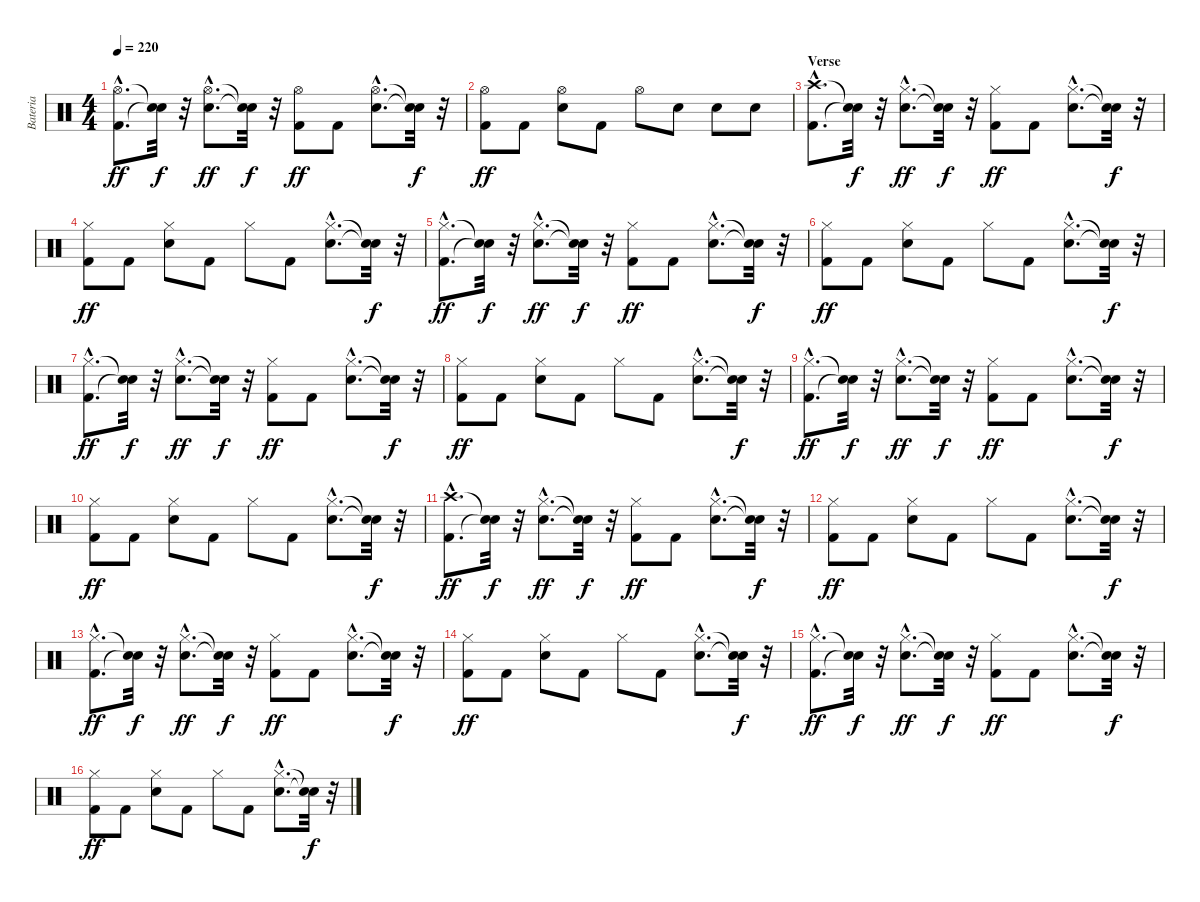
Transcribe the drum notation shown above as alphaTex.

\track ("Bateria" "Bateria") {instrument percussion}
\staff {score}
\articulation defaults
\ts (4 4)
\tempo 220
\clef neutral
\ks c
("Kick (hit) 2"{hac} "Hi-Hat (open)"{hac}).8{d dy ff} ("Snare (hit)"{t} "Snare (hit)"{t}).32{dy f} r.32 ("Electric Snare (hit)"{hac} "Hi-Hat (open)"{hac}).8{d dy ff} ("Snare (hit)"{t} "Snare (hit)"{t}).32{dy f} r.32 ("Kick (hit) 2" "Hi-Hat (open)").8{dy ff} "Kick (hit) 2".8 ("Electric Snare (hit)"{hac} "Hi-Hat (open)"{hac}).8{d} ("Snare (hit)"{t} "Snare (hit)"{t}).32{dy f} r.32 |
("Kick (hit) 2" "Hi-Hat (open)").8{dy ff} "Kick (hit) 2".8 ("Electric Snare (hit)" "Hi-Hat (open)").8 "Kick (hit) 2".8 "Hi-Hat (open)".8 "Electric Snare (hit)".8 "Electric Snare (hit)".8 "Electric Snare (hit)".8 |
\section ("" "Verse")
("Kick (hit) 2"{hac} "Crash high (hit)"{hac}).8{d} ("Snare (hit)"{t} "Snare (hit)"{t}).32{dy f} r.32 ("Electric Snare (hit)"{hac} "Hi-Hat (closed)"{hac}).8{d dy ff} ("Snare (hit)"{t} "Snare (hit)"{t}).32{dy f} r.32 ("Kick (hit) 2" "Hi-Hat (closed)").8{dy ff} "Kick (hit) 2".8 ("Electric Snare (hit)"{hac} "Hi-Hat (closed)"{hac}).8{d} ("Snare (hit)"{t} "Snare (hit)"{t}).32{dy f} r.32 |
("Kick (hit) 2" "Hi-Hat (closed)").8{dy ff} "Kick (hit) 2".8 ("Electric Snare (hit)" "Hi-Hat (closed)").8 "Kick (hit) 2".8 "Hi-Hat (closed)".8 "Kick (hit) 2".8 ("Electric Snare (hit)"{hac} "Hi-Hat (closed)"{hac}).8{d} ("Snare (hit)"{t} "Snare (hit)"{t}).32{dy f} r.32 |
("Kick (hit) 2"{hac} "Hi-Hat (closed)"{hac}).8{d dy ff} ("Snare (hit)"{t} "Snare (hit)"{t}).32{dy f} r.32 ("Electric Snare (hit)"{hac} "Hi-Hat (closed)"{hac}).8{d dy ff} ("Snare (hit)"{t} "Snare (hit)"{t}).32{dy f} r.32 ("Kick (hit) 2" "Hi-Hat (closed)").8{dy ff} "Kick (hit) 2".8 ("Electric Snare (hit)"{hac} "Hi-Hat (closed)"{hac}).8{d} ("Snare (hit)"{t} "Snare (hit)"{t}).32{dy f} r.32 |
("Kick (hit) 2" "Hi-Hat (closed)").8{dy ff} "Kick (hit) 2".8 ("Electric Snare (hit)" "Hi-Hat (closed)").8 "Kick (hit) 2".8 "Hi-Hat (closed)".8 "Kick (hit) 2".8 ("Electric Snare (hit)"{hac} "Hi-Hat (closed)"{hac}).8{d} ("Snare (hit)"{t} "Snare (hit)"{t}).32{dy f} r.32 |
("Kick (hit) 2"{hac} "Hi-Hat (closed)"{hac}).8{d dy ff} ("Snare (hit)"{t} "Snare (hit)"{t}).32{dy f} r.32 ("Electric Snare (hit)"{hac} "Hi-Hat (closed)"{hac}).8{d dy ff} ("Snare (hit)"{t} "Snare (hit)"{t}).32{dy f} r.32 ("Kick (hit) 2" "Hi-Hat (closed)").8{dy ff} "Kick (hit) 2".8 ("Electric Snare (hit)"{hac} "Hi-Hat (closed)"{hac}).8{d} ("Snare (hit)"{t} "Snare (hit)"{t}).32{dy f} r.32 |
("Kick (hit) 2" "Hi-Hat (closed)").8{dy ff} "Kick (hit) 2".8 ("Electric Snare (hit)" "Hi-Hat (closed)").8 "Kick (hit) 2".8 "Hi-Hat (closed)".8 "Kick (hit) 2".8 ("Electric Snare (hit)"{hac} "Hi-Hat (closed)"{hac}).8{d} ("Snare (hit)"{t} "Snare (hit)"{t}).32{dy f} r.32 |
("Kick (hit) 2"{hac} "Hi-Hat (closed)"{hac}).8{d dy ff} ("Snare (hit)"{t} "Snare (hit)"{t}).32{dy f} r.32 ("Electric Snare (hit)"{hac} "Hi-Hat (closed)"{hac}).8{d dy ff} ("Snare (hit)"{t} "Snare (hit)"{t}).32{dy f} r.32 ("Kick (hit) 2" "Hi-Hat (closed)").8{dy ff} "Kick (hit) 2".8 ("Electric Snare (hit)"{hac} "Hi-Hat (closed)"{hac}).8{d} ("Snare (hit)"{t} "Snare (hit)"{t}).32{dy f} r.32 |
("Kick (hit) 2" "Hi-Hat (closed)").8{dy ff} "Kick (hit) 2".8 ("Electric Snare (hit)" "Hi-Hat (closed)").8 "Kick (hit) 2".8 "Hi-Hat (closed)".8 "Kick (hit) 2".8 ("Electric Snare (hit)"{hac} "Hi-Hat (closed)"{hac}).8{d} ("Snare (hit)"{t} "Snare (hit)"{t}).32{dy f} r.32 |
("Kick (hit) 2"{hac} "Crash high (hit)"{hac}).8{d dy ff} ("Snare (hit)"{t} "Snare (hit)"{t}).32{dy f} r.32 ("Electric Snare (hit)"{hac} "Hi-Hat (closed)"{hac}).8{d dy ff} ("Snare (hit)"{t} "Snare (hit)"{t}).32{dy f} r.32 ("Kick (hit) 2" "Hi-Hat (closed)").8{dy ff} "Kick (hit) 2".8 ("Electric Snare (hit)"{hac} "Hi-Hat (closed)"{hac}).8{d} ("Snare (hit)"{t} "Snare (hit)"{t}).32{dy f} r.32 |
("Kick (hit) 2" "Hi-Hat (closed)").8{dy ff} "Kick (hit) 2".8 ("Electric Snare (hit)" "Hi-Hat (closed)").8 "Kick (hit) 2".8 "Hi-Hat (closed)".8 "Kick (hit) 2".8 ("Electric Snare (hit)"{hac} "Hi-Hat (closed)"{hac}).8{d} ("Snare (hit)"{t} "Snare (hit)"{t}).32{dy f} r.32 |
("Kick (hit) 2"{hac} "Hi-Hat (closed)"{hac}).8{d dy ff} ("Snare (hit)"{t} "Snare (hit)"{t}).32{dy f} r.32 ("Electric Snare (hit)"{hac} "Hi-Hat (closed)"{hac}).8{d dy ff} ("Snare (hit)"{t} "Snare (hit)"{t}).32{dy f} r.32 ("Kick (hit) 2" "Hi-Hat (closed)").8{dy ff} "Kick (hit) 2".8 ("Electric Snare (hit)"{hac} "Hi-Hat (closed)"{hac}).8{d} ("Snare (hit)"{t} "Snare (hit)"{t}).32{dy f} r.32 |
("Kick (hit) 2" "Hi-Hat (closed)").8{dy ff} "Kick (hit) 2".8 ("Electric Snare (hit)" "Hi-Hat (closed)").8 "Kick (hit) 2".8 "Hi-Hat (closed)".8 "Kick (hit) 2".8 ("Electric Snare (hit)"{hac} "Hi-Hat (closed)"{hac}).8{d} ("Snare (hit)"{t} "Snare (hit)"{t}).32{dy f} r.32 |
("Kick (hit) 2"{hac} "Hi-Hat (closed)"{hac}).8{d dy ff} ("Snare (hit)"{t} "Snare (hit)"{t}).32{dy f} r.32 ("Electric Snare (hit)"{hac} "Hi-Hat (closed)"{hac}).8{d dy ff} ("Snare (hit)"{t} "Snare (hit)"{t}).32{dy f} r.32 ("Kick (hit) 2" "Hi-Hat (closed)").8{dy ff} "Kick (hit) 2".8 ("Electric Snare (hit)"{hac} "Hi-Hat (closed)"{hac}).8{d} ("Snare (hit)"{t} "Snare (hit)"{t}).32{dy f} r.32 |
("Kick (hit) 2" "Hi-Hat (closed)").8{dy ff} "Kick (hit) 2".8 ("Electric Snare (hit)" "Hi-Hat (closed)").8 "Kick (hit) 2".8 "Hi-Hat (closed)".8 "Kick (hit) 2".8 ("Electric Snare (hit)"{hac} "Hi-Hat (closed)"{hac}).8{d} ("Snare (hit)"{t} "Snare (hit)"{t}).32{dy f} r.32
